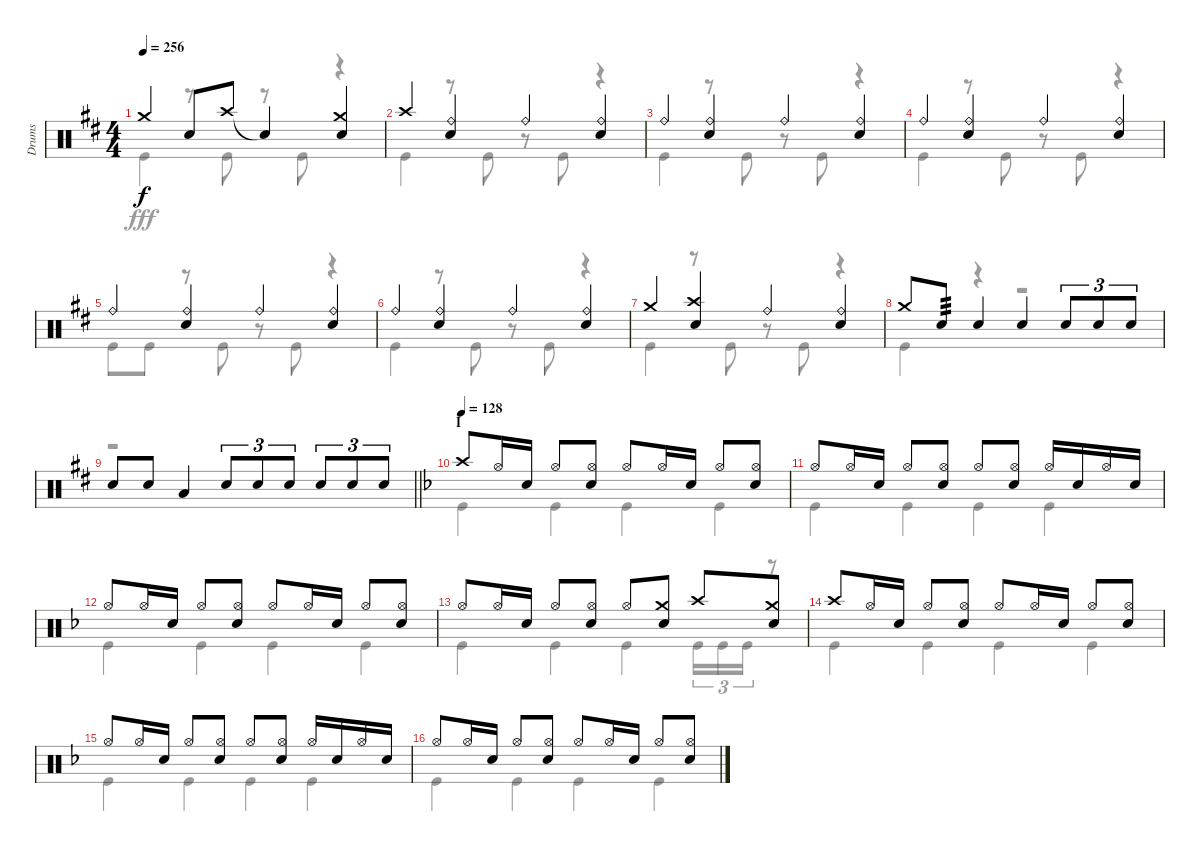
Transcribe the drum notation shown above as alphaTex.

\track ("Drums" "Drums") {instrument percussion}
\staff {score}
\articulation defaults
\voice
\ts (4 4)
\tempo 256
\clef neutral
\ks d "Crash medium (hit)".4{dy f} "Snare (hit) 2".8 "Crash high (hit)".8 "Snare (hit)"{t}.4
("Crash medium (hit)" "Snare (hit) 2").4 |
"Crash high (hit)".4 ("Ride (bell)" "Snare (hit) 2").4 "Ride (bell)".4 ("Ride (bell)" "Snare (hit) 2").4 |
"Ride (bell)".4 ("Ride (bell)" "Snare (hit) 2").4 "Ride (bell)".4 ("Ride (bell)" "Snare (hit) 2").4 |
"Ride (bell)".4 ("Ride (bell)" "Snare (hit) 2").4 "Ride (bell)".4 ("Ride (bell)" "Snare (hit) 2").4 |
"Ride (bell)".4 ("Ride (bell)" "Snare (hit) 2").4 "Ride (bell)".4 ("Ride (bell)" "Snare (hit) 2").4 |
"Ride (bell)".4 ("Ride (bell)" "Snare (hit) 2").4 "Ride (bell)".4 ("Ride (bell)" "Snare (hit) 2").4 |
"Crash medium (hit)".4 ("Crash high (hit)" "Snare (hit) 2").4 "Ride (bell)".4 ("Ride (bell)" "Snare (hit) 2").4 |
"Crash medium (hit)".8 "Snare (hit) 2".8{tp 3} "Snare (hit) 2".4 "Snare (hit) 2".4 "Snare (hit) 2".8{tu (3 2)} "Snare (hit) 2".8{tu (3 2)} "Snare (hit) 2".8{tu (3 2)} |
\barLineRight lightlight "Snare (hit) 2".8 "Snare (hit) 2".8 "Low Tom (hit)".4 "Snare (hit) 2".8{tu (3 2)} "Snare (hit) 2".8{tu (3 2)} "Snare (hit) 2".8{tu (3 2)} "Snare (hit) 2".8{tu (3 2)} "Snare (hit) 2".8{tu (3 2)} "Snare (hit) 2".8{tu (3 2)}
|
\section ("" "I")
\tempo 128
\ks f "Crash high (hit)".8 "Hi-Hat (open)".16 "Snare (hit) 2".16 "Hi-Hat (open)".8
("Hi-Hat (open)" "Snare (hit) 2").8 "Hi-Hat (open)".8 "Hi-Hat (open)".16 "Snare (hit) 2".16 "Hi-Hat (open)".8 ("Hi-Hat (open)" "Snare (hit) 2").8 |
"Hi-Hat (open)".8 "Hi-Hat (open)".16 "Snare (hit) 2".16 "Hi-Hat (open)".8 ("Hi-Hat (open)" "Snare (hit) 2").8 "Hi-Hat (open)".8 ("Hi-Hat (open)" "Snare (hit) 2").8 "Hi-Hat (open)".16 "Snare (hit) 2".16 "Hi-Hat (open)".16 "Snare (hit) 2".16 |
"Hi-Hat (open)".8 "Hi-Hat (open)".16 "Snare (hit) 2".16 "Hi-Hat (open)".8 ("Hi-Hat (open)" "Snare (hit) 2").8 "Hi-Hat (open)".8 "Hi-Hat (open)".16 "Snare (hit) 2".16 "Hi-Hat (open)".8 ("Hi-Hat (open)" "Snare (hit) 2").8 |
"Hi-Hat (open)".8 "Hi-Hat (open)".16 "Snare (hit) 2".16 "Hi-Hat (open)".8 ("Hi-Hat (open)" "Snare (hit) 2").8 "Hi-Hat (open)".8 ("Crash medium (hit)" "Snare (hit) 2").8 "Crash high (hit)".8 ("Crash medium (hit)" "Snare (hit) 2").8 |
"Crash high (hit)".8 "Hi-Hat (open)".16 "Snare (hit) 2".16 "Hi-Hat (open)".8 ("Hi-Hat (open)" "Snare (hit) 2").8 "Hi-Hat (open)".8 "Hi-Hat (open)".16 "Snare (hit) 2".16 "Hi-Hat (open)".8 ("Hi-Hat (open)" "Snare (hit) 2").8 |
"Hi-Hat (open)".8 "Hi-Hat (open)".16 "Snare (hit) 2".16 "Hi-Hat (open)".8 ("Hi-Hat (open)" "Snare (hit) 2").8 "Hi-Hat (open)".8 ("Hi-Hat (open)" "Snare (hit) 2").8 "Hi-Hat (open)".16 "Snare (hit) 2".16 "Hi-Hat (open)".16 "Snare (hit) 2".16 |
"Hi-Hat (open)".8 "Hi-Hat (open)".16 "Snare (hit) 2".16 "Hi-Hat (open)".8 ("Hi-Hat (open)" "Snare (hit) 2").8 "Hi-Hat (open)".8 "Hi-Hat (open)".16 "Snare (hit) 2".16 "Hi-Hat (open)".8 ("Hi-Hat (open)" "Snare (hit) 2").8
\voice
\clef neutral
\ottava regular
\simile none
\ks d "Kick (hit)".4{dy fff}
r.8 "Kick (hit)".8 r.8 "Kick (hit)".8 r.4 |
"Kick (hit)".4 r.8 "Kick (hit)".8 r.8 "Kick (hit)".8 r.4 |
"Kick (hit)".4 r.8 "Kick (hit)".8 r.8 "Kick (hit)".8 r.4 |
"Kick (hit)".4 r.8 "Kick (hit)".8 r.8 "Kick (hit)".8 r.4 |
"Kick (hit)".8 "Kick (hit)".8 r.8 "Kick (hit)".8 r.8 "Kick (hit)".8 r.4 |
"Kick (hit)".4 r.8 "Kick (hit)".8 r.8 "Kick (hit)".8 r.4 |
"Kick (hit)".4 r.8 "Kick (hit)".8 r.8 "Kick (hit)".8 r.4 |
"Kick (hit)".4 r.4 r.2 |
\barLineRight lightlight
r.1 |
\ks f "Kick (hit)".4 "Kick (hit)".4 "Kick (hit)".4 "Kick (hit)".4
|
"Kick (hit)".4 "Kick (hit)".4 "Kick (hit)".4 "Kick (hit)".4 |
"Kick (hit)".4 "Kick (hit)".4 "Kick (hit)".4 "Kick (hit)".4 |
"Kick (hit)".4 "Kick (hit)".4 "Kick (hit)".4 "Kick (hit)".16{tu (3 2)} "Kick (hit)".16{tu (3 2)} "Kick (hit)".16{tu (3 2)} r.8 |
"Kick (hit)".4 "Kick (hit)".4 "Kick (hit)".4 "Kick (hit)".4 |
"Kick (hit)".4 "Kick (hit)".4 "Kick (hit)".4 "Kick (hit)".4 |
"Kick (hit)".4 "Kick (hit)".4 "Kick (hit)".4 "Kick (hit)".4
